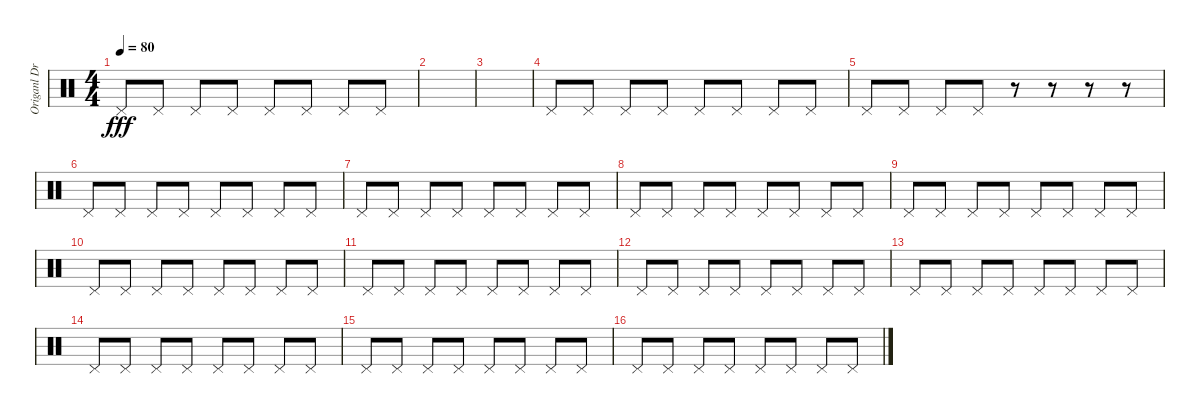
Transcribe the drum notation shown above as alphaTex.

\track ("Origanl Drum Track" "Origanl Dr") {instrument percussion}
\staff {score}
\articulation defaults
\ts (4 4)
\tempo 80
\clef neutral
\ks c "Pedal Hi-Hat (hit)".8{dy fff} "Pedal Hi-Hat (hit)".8 "Pedal Hi-Hat (hit)".8 "Pedal Hi-Hat (hit)".8 "Pedal Hi-Hat (hit)".8 "Pedal Hi-Hat (hit)".8 "Pedal Hi-Hat (hit)".8 "Pedal Hi-Hat (hit)".8
|
|
|
"Pedal Hi-Hat (hit)".8 "Pedal Hi-Hat (hit)".8 "Pedal Hi-Hat (hit)".8 "Pedal Hi-Hat (hit)".8 "Pedal Hi-Hat (hit)".8 "Pedal Hi-Hat (hit)".8 "Pedal Hi-Hat (hit)".8 "Pedal Hi-Hat (hit)".8 |
"Pedal Hi-Hat (hit)".8 "Pedal Hi-Hat (hit)".8 "Pedal Hi-Hat (hit)".8 "Pedal Hi-Hat (hit)".8 r.8 r.8 r.8 r.8 |
"Pedal Hi-Hat (hit)".8 "Pedal Hi-Hat (hit)".8 "Pedal Hi-Hat (hit)".8 "Pedal Hi-Hat (hit)".8 "Pedal Hi-Hat (hit)".8 "Pedal Hi-Hat (hit)".8 "Pedal Hi-Hat (hit)".8 "Pedal Hi-Hat (hit)".8 |
"Pedal Hi-Hat (hit)".8 "Pedal Hi-Hat (hit)".8 "Pedal Hi-Hat (hit)".8 "Pedal Hi-Hat (hit)".8 "Pedal Hi-Hat (hit)".8 "Pedal Hi-Hat (hit)".8 "Pedal Hi-Hat (hit)".8 "Pedal Hi-Hat (hit)".8 |
"Pedal Hi-Hat (hit)".8 "Pedal Hi-Hat (hit)".8 "Pedal Hi-Hat (hit)".8 "Pedal Hi-Hat (hit)".8 "Pedal Hi-Hat (hit)".8 "Pedal Hi-Hat (hit)".8 "Pedal Hi-Hat (hit)".8 "Pedal Hi-Hat (hit)".8 |
"Pedal Hi-Hat (hit)".8 "Pedal Hi-Hat (hit)".8 "Pedal Hi-Hat (hit)".8 "Pedal Hi-Hat (hit)".8 "Pedal Hi-Hat (hit)".8 "Pedal Hi-Hat (hit)".8 "Pedal Hi-Hat (hit)".8 "Pedal Hi-Hat (hit)".8 |
"Pedal Hi-Hat (hit)".8 "Pedal Hi-Hat (hit)".8 "Pedal Hi-Hat (hit)".8 "Pedal Hi-Hat (hit)".8 "Pedal Hi-Hat (hit)".8 "Pedal Hi-Hat (hit)".8 "Pedal Hi-Hat (hit)".8 "Pedal Hi-Hat (hit)".8 |
"Pedal Hi-Hat (hit)".8 "Pedal Hi-Hat (hit)".8 "Pedal Hi-Hat (hit)".8 "Pedal Hi-Hat (hit)".8 "Pedal Hi-Hat (hit)".8 "Pedal Hi-Hat (hit)".8 "Pedal Hi-Hat (hit)".8 "Pedal Hi-Hat (hit)".8 |
"Pedal Hi-Hat (hit)".8 "Pedal Hi-Hat (hit)".8 "Pedal Hi-Hat (hit)".8 "Pedal Hi-Hat (hit)".8 "Pedal Hi-Hat (hit)".8 "Pedal Hi-Hat (hit)".8 "Pedal Hi-Hat (hit)".8 "Pedal Hi-Hat (hit)".8 |
"Pedal Hi-Hat (hit)".8 "Pedal Hi-Hat (hit)".8 "Pedal Hi-Hat (hit)".8 "Pedal Hi-Hat (hit)".8 "Pedal Hi-Hat (hit)".8 "Pedal Hi-Hat (hit)".8 "Pedal Hi-Hat (hit)".8 "Pedal Hi-Hat (hit)".8 |
"Pedal Hi-Hat (hit)".8 "Pedal Hi-Hat (hit)".8 "Pedal Hi-Hat (hit)".8 "Pedal Hi-Hat (hit)".8 "Pedal Hi-Hat (hit)".8 "Pedal Hi-Hat (hit)".8 "Pedal Hi-Hat (hit)".8 "Pedal Hi-Hat (hit)".8 |
"Pedal Hi-Hat (hit)".8 "Pedal Hi-Hat (hit)".8 "Pedal Hi-Hat (hit)".8 "Pedal Hi-Hat (hit)".8 "Pedal Hi-Hat (hit)".8 "Pedal Hi-Hat (hit)".8 "Pedal Hi-Hat (hit)".8 "Pedal Hi-Hat (hit)".8 |
"Pedal Hi-Hat (hit)".8 "Pedal Hi-Hat (hit)".8 "Pedal Hi-Hat (hit)".8 "Pedal Hi-Hat (hit)".8 "Pedal Hi-Hat (hit)".8 "Pedal Hi-Hat (hit)".8 "Pedal Hi-Hat (hit)".8 "Pedal Hi-Hat (hit)".8
